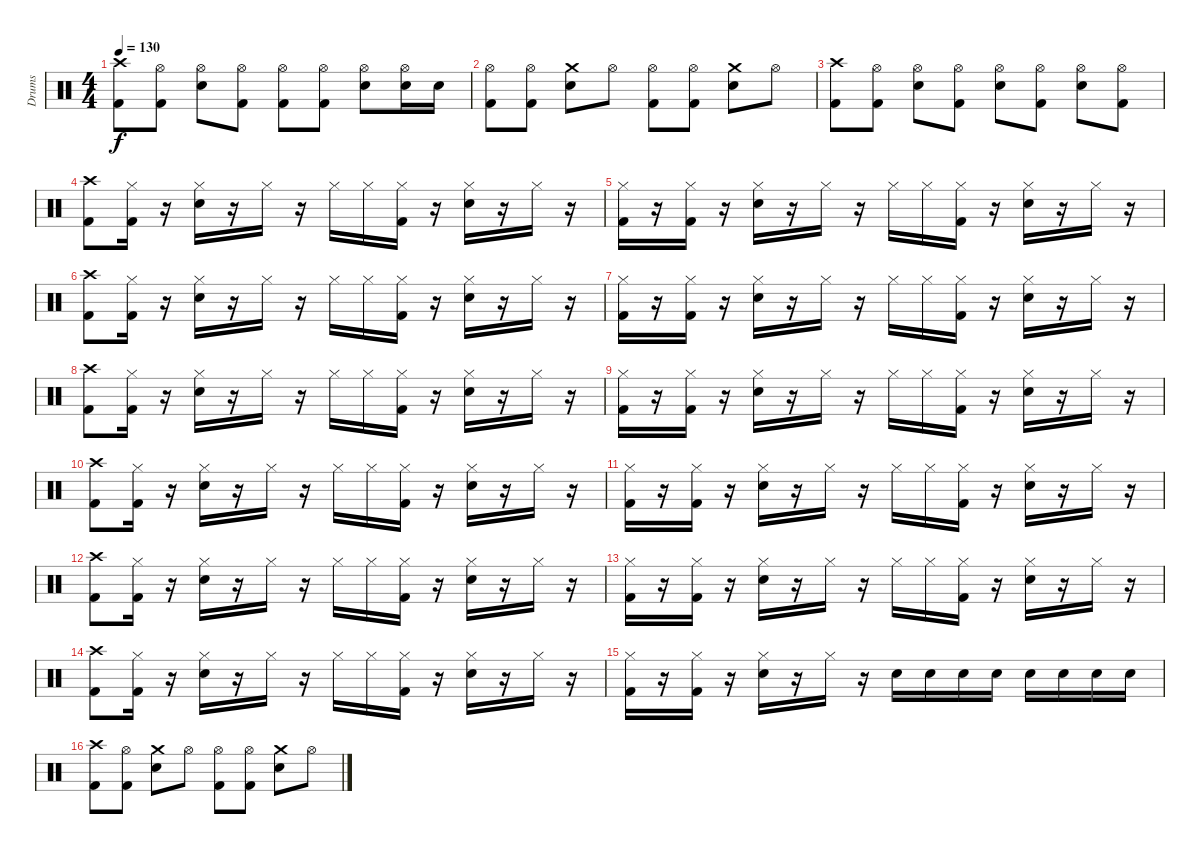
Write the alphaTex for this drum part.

\track ("Drums" "Drums") {instrument percussion}
\staff {score}
\articulation defaults
\ts (4 4)
\tempo 130
\clef neutral
\ks c
("Kick (hit) 2" "Crash high (hit)").8{dy f} ("Kick (hit) 2" "Hi-Hat (open)").8 ("Electric Snare (hit)" "Hi-Hat (open)").8 ("Kick (hit) 2" "Hi-Hat (open)").8 ("Kick (hit) 2" "Hi-Hat (open)").8 ("Kick (hit) 2" "Hi-Hat (open)").8 ("Electric Snare (hit)" "Hi-Hat (open)").8 ("Electric Snare (hit)" "Hi-Hat (open)").16 "Electric Snare (hit)".16 |
("Kick (hit) 2" "Hi-Hat (open)").8 ("Kick (hit) 2" "Hi-Hat (open)").8 ("Electric Snare (hit)" "Crash medium (hit)").8 "Hi-Hat (open)".8 ("Kick (hit) 2" "Hi-Hat (open)").8 ("Kick (hit) 2" "Hi-Hat (open)").8 ("Electric Snare (hit)" "Crash medium (hit)").8 "Hi-Hat (open)".8 |
("Kick (hit) 2" "Crash high (hit)").8 ("Kick (hit) 2" "Hi-Hat (open)").8 ("Electric Snare (hit)" "Hi-Hat (open)").8 ("Kick (hit) 2" "Hi-Hat (open)").8 ("Electric Snare (hit)" "Hi-Hat (open)").8 ("Kick (hit) 2" "Hi-Hat (open)").8 ("Electric Snare (hit)" "Hi-Hat (open)").8 ("Kick (hit) 2" "Hi-Hat (open)").8 |
("Kick (hit) 2" "Crash high (hit)").8 ("Kick (hit) 2" "Hi-Hat (closed)").16 r.16 ("Electric Snare (hit)" "Hi-Hat (closed)").16 r.16 "Hi-Hat (closed)".16 r.16 "Hi-Hat (closed)".16 "Hi-Hat (closed)".16 ("Kick (hit) 2" "Hi-Hat (closed)").16 r.16 ("Electric Snare (hit)" "Hi-Hat (closed)").16 r.16 "Hi-Hat (closed)".16 r.16 |
("Kick (hit) 2" "Hi-Hat (closed)").16 r.16 ("Kick (hit) 2" "Hi-Hat (closed)").16 r.16 ("Electric Snare (hit)" "Hi-Hat (closed)").16 r.16 "Hi-Hat (closed)".16 r.16 "Hi-Hat (closed)".16 "Hi-Hat (closed)".16 ("Kick (hit) 2" "Hi-Hat (closed)").16 r.16 ("Electric Snare (hit)" "Hi-Hat (closed)").16 r.16 "Hi-Hat (closed)".16 r.16 |
("Kick (hit) 2" "Crash high (hit)").8 ("Kick (hit) 2" "Hi-Hat (closed)").16 r.16 ("Electric Snare (hit)" "Hi-Hat (closed)").16 r.16 "Hi-Hat (closed)".16 r.16 "Hi-Hat (closed)".16 "Hi-Hat (closed)".16 ("Kick (hit) 2" "Hi-Hat (closed)").16 r.16 ("Electric Snare (hit)" "Hi-Hat (closed)").16 r.16 "Hi-Hat (closed)".16 r.16 |
("Kick (hit) 2" "Hi-Hat (closed)").16 r.16 ("Kick (hit) 2" "Hi-Hat (closed)").16 r.16 ("Electric Snare (hit)" "Hi-Hat (closed)").16 r.16 "Hi-Hat (closed)".16 r.16 "Hi-Hat (closed)".16 "Hi-Hat (closed)".16 ("Kick (hit) 2" "Hi-Hat (closed)").16 r.16 ("Electric Snare (hit)" "Hi-Hat (closed)").16 r.16 "Hi-Hat (closed)".16 r.16 |
("Kick (hit) 2" "Crash high (hit)").8 ("Kick (hit) 2" "Hi-Hat (closed)").16 r.16 ("Electric Snare (hit)" "Hi-Hat (closed)").16 r.16 "Hi-Hat (closed)".16 r.16 "Hi-Hat (closed)".16 "Hi-Hat (closed)".16 ("Kick (hit) 2" "Hi-Hat (closed)").16 r.16 ("Electric Snare (hit)" "Hi-Hat (closed)").16 r.16 "Hi-Hat (closed)".16 r.16 |
("Kick (hit) 2" "Hi-Hat (closed)").16 r.16 ("Kick (hit) 2" "Hi-Hat (closed)").16 r.16 ("Electric Snare (hit)" "Hi-Hat (closed)").16 r.16 "Hi-Hat (closed)".16 r.16 "Hi-Hat (closed)".16 "Hi-Hat (closed)".16 ("Kick (hit) 2" "Hi-Hat (closed)").16 r.16 ("Electric Snare (hit)" "Hi-Hat (closed)").16 r.16 "Hi-Hat (closed)".16 r.16 |
("Kick (hit) 2" "Crash high (hit)").8 ("Kick (hit) 2" "Hi-Hat (closed)").16 r.16 ("Electric Snare (hit)" "Hi-Hat (closed)").16 r.16 "Hi-Hat (closed)".16 r.16 "Hi-Hat (closed)".16 "Hi-Hat (closed)".16 ("Kick (hit) 2" "Hi-Hat (closed)").16 r.16 ("Electric Snare (hit)" "Hi-Hat (closed)").16 r.16 "Hi-Hat (closed)".16 r.16 |
("Kick (hit) 2" "Hi-Hat (closed)").16 r.16 ("Kick (hit) 2" "Hi-Hat (closed)").16 r.16 ("Electric Snare (hit)" "Hi-Hat (closed)").16 r.16 "Hi-Hat (closed)".16 r.16 "Hi-Hat (closed)".16 "Hi-Hat (closed)".16 ("Kick (hit) 2" "Hi-Hat (closed)").16 r.16 ("Electric Snare (hit)" "Hi-Hat (closed)").16 r.16 "Hi-Hat (closed)".16 r.16 |
("Kick (hit) 2" "Crash high (hit)").8 ("Kick (hit) 2" "Hi-Hat (closed)").16 r.16 ("Electric Snare (hit)" "Hi-Hat (closed)").16 r.16 "Hi-Hat (closed)".16 r.16 "Hi-Hat (closed)".16 "Hi-Hat (closed)".16 ("Kick (hit) 2" "Hi-Hat (closed)").16 r.16 ("Electric Snare (hit)" "Hi-Hat (closed)").16 r.16 "Hi-Hat (closed)".16 r.16 |
("Kick (hit) 2" "Hi-Hat (closed)").16 r.16 ("Kick (hit) 2" "Hi-Hat (closed)").16 r.16 ("Electric Snare (hit)" "Hi-Hat (closed)").16 r.16 "Hi-Hat (closed)".16 r.16 "Hi-Hat (closed)".16 "Hi-Hat (closed)".16 ("Kick (hit) 2" "Hi-Hat (closed)").16 r.16 ("Electric Snare (hit)" "Hi-Hat (closed)").16 r.16 "Hi-Hat (closed)".16 r.16 |
("Kick (hit) 2" "Crash high (hit)").8 ("Kick (hit) 2" "Hi-Hat (closed)").16 r.16 ("Electric Snare (hit)" "Hi-Hat (closed)").16 r.16 "Hi-Hat (closed)".16 r.16 "Hi-Hat (closed)".16 "Hi-Hat (closed)".16 ("Kick (hit) 2" "Hi-Hat (closed)").16 r.16 ("Electric Snare (hit)" "Hi-Hat (closed)").16 r.16 "Hi-Hat (closed)".16 r.16 |
("Kick (hit) 2" "Hi-Hat (closed)").16 r.16 ("Kick (hit) 2" "Hi-Hat (closed)").16 r.16 ("Electric Snare (hit)" "Hi-Hat (closed)").16 r.16 "Hi-Hat (closed)".16 r.16 "Electric Snare (hit)".16 "Electric Snare (hit)".16 "Electric Snare (hit)".16 "Electric Snare (hit)".16 "Electric Snare (hit)".16 "Electric Snare (hit)".16 "Electric Snare (hit)".16 "Electric Snare (hit)".16 |
("Kick (hit) 2" "Crash high (hit)").8 ("Kick (hit) 2" "Hi-Hat (open)").8 ("Electric Snare (hit)" "Crash medium (hit)").8 "Hi-Hat (open)".8 ("Kick (hit) 2" "Hi-Hat (open)").8 ("Kick (hit) 2" "Hi-Hat (open)").8 ("Electric Snare (hit)" "Crash medium (hit)").8 "Hi-Hat (open)".8
